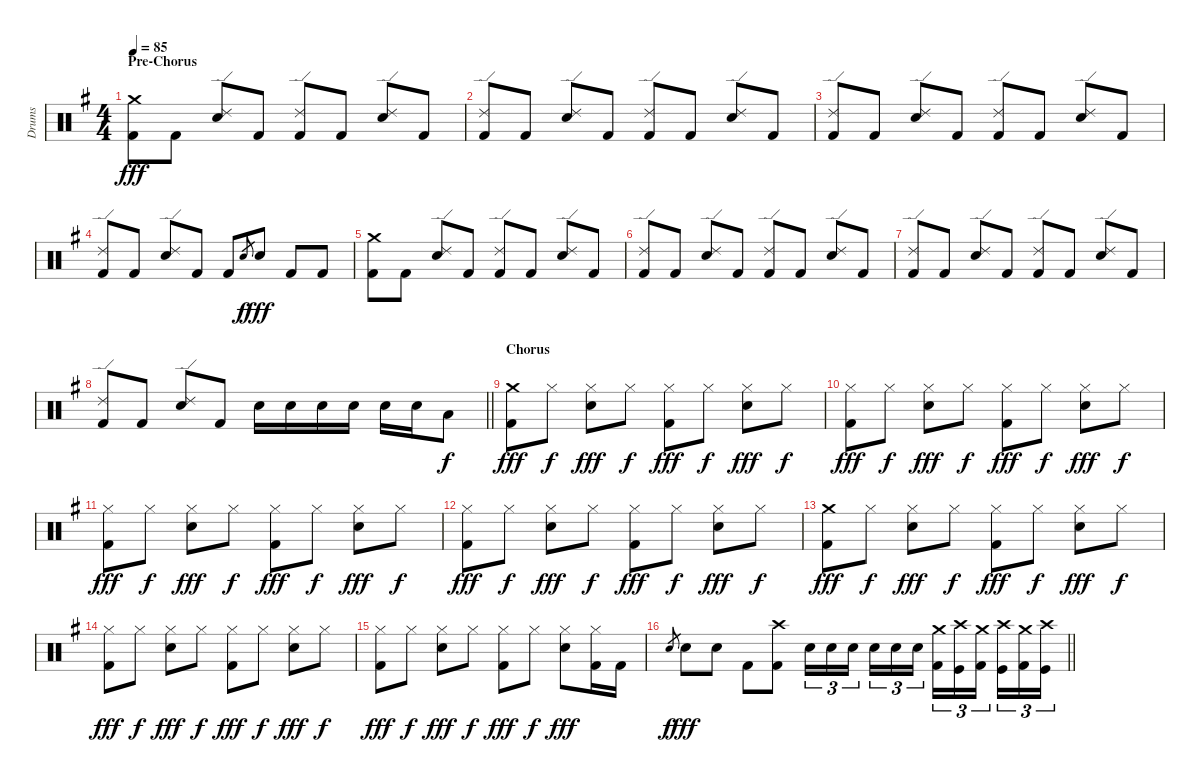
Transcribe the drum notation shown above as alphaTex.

\track ("Drums" "Drums") {instrument percussion}
\staff {score}
\articulation defaults
\ts (4 4)
\section ("" "Pre-Chorus")
\tempo 85
\clef neutral
\ks g
("Crash medium (hit)" "Kick (hit) 2").8{dy fff} "Kick (hit) 2".8 ("Ride (edge) 2" "Snare (hit) 2").8 "Kick (hit) 2".8 ("Ride (edge) 2" "Kick (hit) 2").8 "Kick (hit) 2".8 ("Ride (edge) 2" "Snare (hit) 2").8 "Kick (hit) 2".8 |
("Ride (edge) 2" "Kick (hit) 2").8 "Kick (hit) 2".8 ("Ride (edge) 2" "Snare (hit) 2").8 "Kick (hit) 2".8 ("Ride (edge) 2" "Kick (hit) 2").8 "Kick (hit) 2".8 ("Ride (edge) 2" "Snare (hit) 2").8 "Kick (hit) 2".8 |
("Ride (edge) 2" "Kick (hit) 2").8 "Kick (hit) 2".8 ("Ride (edge) 2" "Snare (hit) 2").8 "Kick (hit) 2".8 ("Ride (edge) 2" "Kick (hit) 2").8 "Kick (hit) 2".8 ("Ride (edge) 2" "Snare (hit) 2").8 "Kick (hit) 2".8 |
("Ride (edge) 2" "Kick (hit) 2").8 "Kick (hit) 2".8 ("Ride (edge) 2" "Snare (hit) 2").8 "Kick (hit) 2".8 "Kick (hit) 2".8 "Snare (hit) 2".8{gr dy f} "Snare (hit) 2".8{dy fff} "Kick (hit) 2".8 "Kick (hit) 2".8 |
("Crash medium (hit)" "Kick (hit) 2").8 "Kick (hit) 2".8 ("Ride (edge) 2" "Snare (hit) 2").8 "Kick (hit) 2".8 ("Ride (edge) 2" "Kick (hit) 2").8 "Kick (hit) 2".8 ("Ride (edge) 2" "Snare (hit) 2").8 "Kick (hit) 2".8 |
("Ride (edge) 2" "Kick (hit) 2").8 "Kick (hit) 2".8 ("Ride (edge) 2" "Snare (hit) 2").8 "Kick (hit) 2".8 ("Ride (edge) 2" "Kick (hit) 2").8 "Kick (hit) 2".8 ("Ride (edge) 2" "Snare (hit) 2").8 "Kick (hit) 2".8 |
("Ride (edge) 2" "Kick (hit) 2").8 "Kick (hit) 2".8 ("Ride (edge) 2" "Snare (hit) 2").8 "Kick (hit) 2".8 ("Ride (edge) 2" "Kick (hit) 2").8 "Kick (hit) 2".8 ("Ride (edge) 2" "Snare (hit) 2").8 "Kick (hit) 2".8 |
\barLineRight lightlight
("Ride (edge) 2" "Kick (hit) 2").8 "Kick (hit) 2".8 ("Ride (edge) 2" "Snare (hit) 2").8 "Kick (hit) 2".8 "Snare (hit) 2".16 "Snare (hit) 2".16 "Snare (hit) 2".16 "Snare (hit) 2".16 "Snare (hit) 2".16 "Snare (hit) 2".16 "Low Tom (hit)".8{dy f} |
\section ("" "Chorus")
("Crash medium (hit)" "Kick (hit) 2").8{dy fff} "Hi-Hat (closed)".8{dy f} ("Hi-Hat (closed)" "Snare (hit) 2").8{dy fff} "Hi-Hat (closed)".8{dy f} ("Hi-Hat (closed)" "Kick (hit) 2").8{dy fff} "Hi-Hat (closed)".8{dy f} ("Hi-Hat (closed)" "Snare (hit) 2").8{dy fff} "Hi-Hat (closed)".8{dy f} |
("Hi-Hat (closed)" "Kick (hit) 2").8{dy fff} "Hi-Hat (closed)".8{dy f} ("Hi-Hat (closed)" "Snare (hit) 2").8{dy fff} "Hi-Hat (closed)".8{dy f} ("Hi-Hat (closed)" "Kick (hit) 2").8{dy fff} "Hi-Hat (closed)".8{dy f} ("Hi-Hat (closed)" "Snare (hit) 2").8{dy fff} "Hi-Hat (closed)".8{dy f} |
("Hi-Hat (closed)" "Kick (hit) 2").8{dy fff} "Hi-Hat (closed)".8{dy f} ("Hi-Hat (closed)" "Snare (hit) 2").8{dy fff} "Hi-Hat (closed)".8{dy f} ("Hi-Hat (closed)" "Kick (hit) 2").8{dy fff} "Hi-Hat (closed)".8{dy f} ("Hi-Hat (closed)" "Snare (hit) 2").8{dy fff} "Hi-Hat (closed)".8{dy f} |
("Hi-Hat (closed)" "Kick (hit) 2").8{dy fff} "Hi-Hat (closed)".8{dy f} ("Hi-Hat (closed)" "Snare (hit) 2").8{dy fff} "Hi-Hat (closed)".8{dy f} ("Hi-Hat (closed)" "Kick (hit) 2").8{dy fff} "Hi-Hat (closed)".8{dy f} ("Hi-Hat (closed)" "Snare (hit) 2").8{dy fff} "Hi-Hat (closed)".8{dy f} |
("Crash medium (hit)" "Kick (hit) 2").8{dy fff} "Hi-Hat (closed)".8{dy f} ("Hi-Hat (closed)" "Snare (hit) 2").8{dy fff} "Hi-Hat (closed)".8{dy f} ("Hi-Hat (closed)" "Kick (hit) 2").8{dy fff} "Hi-Hat (closed)".8{dy f} ("Hi-Hat (closed)" "Snare (hit) 2").8{dy fff} "Hi-Hat (closed)".8{dy f} |
("Hi-Hat (closed)" "Kick (hit) 2").8{dy fff} "Hi-Hat (closed)".8{dy f} ("Hi-Hat (closed)" "Snare (hit) 2").8{dy fff} "Hi-Hat (closed)".8{dy f} ("Hi-Hat (closed)" "Kick (hit) 2").8{dy fff} "Hi-Hat (closed)".8{dy f} ("Hi-Hat (closed)" "Snare (hit) 2").8{dy fff} "Hi-Hat (closed)".8{dy f} |
("Hi-Hat (closed)" "Kick (hit) 2").8{dy fff} "Hi-Hat (closed)".8{dy f} ("Hi-Hat (closed)" "Snare (hit) 2").8{dy fff} "Hi-Hat (closed)".8{dy f} ("Hi-Hat (closed)" "Kick (hit) 2").8{dy fff} "Hi-Hat (closed)".8{dy f} ("Hi-Hat (closed)" "Snare (hit) 2").8{dy fff} ("Hi-Hat (closed)" "Kick (hit) 2").16 "Kick (hit) 2".16 |
\barLineRight lightlight "Snare (hit) 2".8{gr dy f} "Snare (hit) 2".8{dy fff} "Snare (hit) 2".8 "Kick (hit) 2".8
("Crash high (hit)" "Kick (hit) 2").8 "Snare (hit) 2".16{tu (3 2)} "Snare (hit) 2".16{tu (3 2)} "Snare (hit) 2".16{tu (3 2) beam splitsecondary} "Snare (hit) 2".16{tu (3 2)} "Snare (hit) 2".16{tu (3 2)} "Snare (hit) 2".16{tu (3 2)} ("Crash medium (hit)" "Kick (hit) 2").16{tu (3 2)} ("Crash high (hit)" "Kick (hit)").16{tu (3 2)} ("Crash medium (hit)" "Kick (hit) 2").16{tu (3 2) beam splitsecondary} ("Crash high (hit)" "Kick (hit)").16{tu (3 2)} ("Crash medium (hit)" "Kick (hit) 2").16{tu (3 2)} ("Crash high (hit)" "Kick (hit)").16{tu (3 2)}
